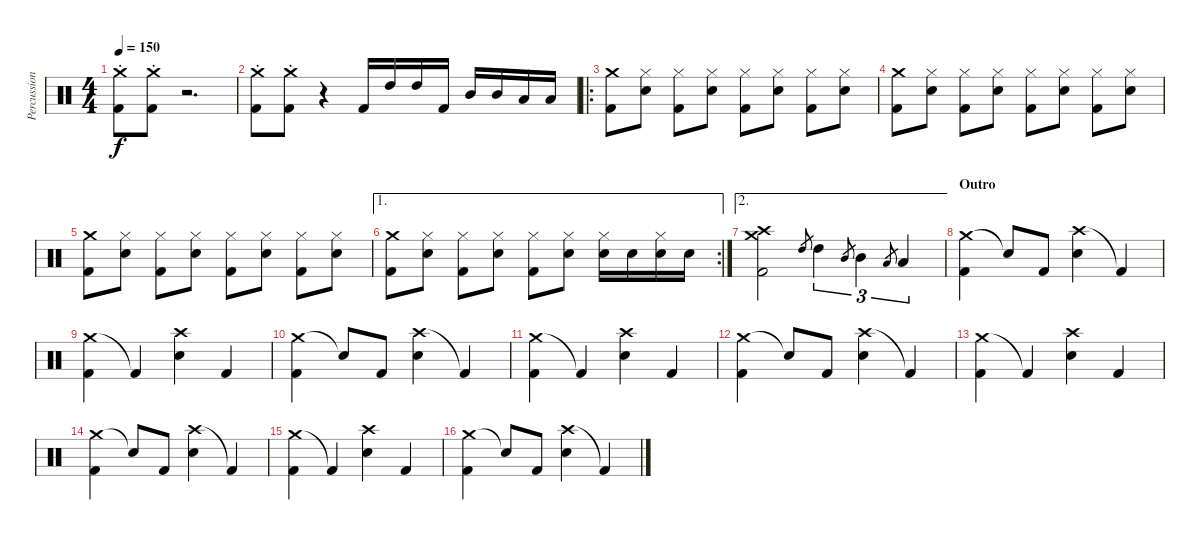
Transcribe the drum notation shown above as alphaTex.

\track ("Percussions" "Percussion") {instrument percussion}
\staff {score}
\articulation defaults
\ts (4 4)
\tempo 150
\clef neutral
\ks c
("Crash medium (hit)"{st} "Kick (hit) 2").8{dy f} ("Crash medium (hit)"{st} "Kick (hit) 2").8 r.2{d} |
("Crash medium (hit)"{st} "Kick (hit) 2").8 ("Crash medium (hit)"{st} "Kick (hit) 2").8 r.4 "Kick (hit) 2".16 "High Tom (hit)".16 "High Tom (hit)".16 "Kick (hit) 2".16 "Mid Tom (hit)".16 "Mid Tom (hit)".16 "Low Tom (hit)".16 "Low Tom (hit)".16 |
\ro
("Crash medium (hit)" "Kick (hit) 2").8 ("Hi-Hat (closed)" "Snare (hit) 2").8 ("Hi-Hat (closed)" "Kick (hit) 2").8 ("Hi-Hat (closed)" "Snare (hit) 2").8 ("Hi-Hat (closed)" "Kick (hit) 2").8 ("Hi-Hat (closed)" "Snare (hit) 2").8 ("Hi-Hat (closed)" "Kick (hit) 2").8 ("Hi-Hat (closed)" "Snare (hit) 2").8 |
("Crash medium (hit)" "Kick (hit) 2").8 ("Hi-Hat (closed)" "Snare (hit) 2").8 ("Hi-Hat (closed)" "Kick (hit) 2").8 ("Hi-Hat (closed)" "Snare (hit) 2").8 ("Hi-Hat (closed)" "Kick (hit) 2").8 ("Hi-Hat (closed)" "Snare (hit) 2").8 ("Hi-Hat (closed)" "Kick (hit) 2").8 ("Hi-Hat (closed)" "Snare (hit) 2").8 |
("Crash medium (hit)" "Kick (hit) 2").8 ("Hi-Hat (closed)" "Snare (hit) 2").8 ("Hi-Hat (closed)" "Kick (hit) 2").8 ("Hi-Hat (closed)" "Snare (hit) 2").8 ("Hi-Hat (closed)" "Kick (hit) 2").8 ("Hi-Hat (closed)" "Snare (hit) 2").8 ("Hi-Hat (closed)" "Kick (hit) 2").8 ("Hi-Hat (closed)" "Snare (hit) 2").8 |
\ae 1
\rc 2
("Crash medium (hit)" "Kick (hit) 2").8 ("Hi-Hat (closed)" "Snare (hit) 2").8 ("Hi-Hat (closed)" "Kick (hit) 2").8 ("Hi-Hat (closed)" "Snare (hit) 2").8 ("Hi-Hat (closed)" "Kick (hit) 2").8 ("Hi-Hat (closed)" "Snare (hit) 2").8 ("Hi-Hat (closed)" "Snare (hit) 2").16 "Snare (hit) 2".16 ("Hi-Hat (closed)" "Snare (hit) 2").16 "Snare (hit) 2".16 |
\ae 2
("Crash medium (hit)" "Crash high (hit)" "Kick (hit) 2").2 "High Tom (hit)".8{gr} "High Tom (hit)".4{tu (3 2)} "Mid Tom (hit)".8{gr} "Mid Tom (hit)".4{tu (3 2)} "Low Tom (hit)".8{gr} "Low Tom (hit)".4{tu (3 2)} |
\section ("" "Outro")
("Crash medium (hit)" "Kick (hit) 2").4 "Snare (hit)"{t}.8 "Kick (hit) 2".8 ("Crash high (hit)" "Snare (hit) 2").4 "Kick (hit) 2"{t}.4 |
("Crash medium (hit)" "Kick (hit) 2").4 "Kick (hit) 2"{t}.4 ("Crash high (hit)" "Snare (hit) 2").4 "Kick (hit) 2".4 |
("Crash medium (hit)" "Kick (hit) 2").4 "Snare (hit)"{t}.8 "Kick (hit) 2".8 ("Crash high (hit)" "Snare (hit) 2").4 "Kick (hit) 2"{t}.4 |
("Crash medium (hit)" "Kick (hit) 2").4 "Kick (hit) 2"{t}.4 ("Crash high (hit)" "Snare (hit) 2").4 "Kick (hit) 2".4 |
("Crash medium (hit)" "Kick (hit) 2").4 "Snare (hit)"{t}.8 "Kick (hit) 2".8 ("Crash high (hit)" "Snare (hit) 2").4 "Kick (hit) 2"{t}.4 |
("Crash medium (hit)" "Kick (hit) 2").4 "Kick (hit) 2"{t}.4 ("Crash high (hit)" "Snare (hit) 2").4 "Kick (hit) 2".4 |
("Crash medium (hit)" "Kick (hit) 2").4 "Snare (hit)"{t}.8 "Kick (hit) 2".8 ("Crash high (hit)" "Snare (hit) 2").4 "Kick (hit) 2"{t}.4 |
("Crash medium (hit)" "Kick (hit) 2").4 "Kick (hit) 2"{t}.4 ("Crash high (hit)" "Snare (hit) 2").4 "Kick (hit) 2".4 |
("Crash medium (hit)" "Kick (hit) 2").4 "Snare (hit)"{t}.8 "Kick (hit) 2".8 ("Crash high (hit)" "Snare (hit) 2").4 "Kick (hit) 2"{t}.4
